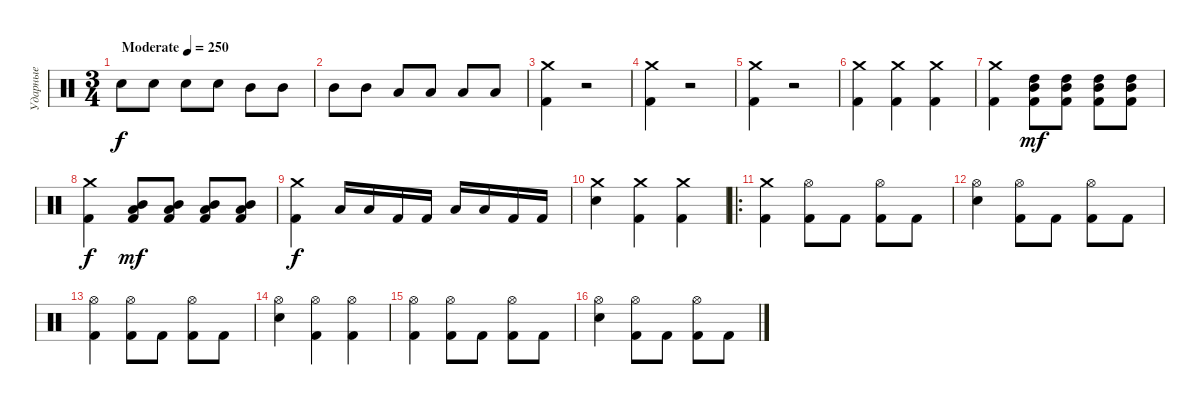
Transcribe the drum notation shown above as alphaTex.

\track ("Ударные" "Ударные") {instrument percussion}
\staff {score}
\articulation defaults
\ts (3 4)
\tempo (250 "Moderate")
\clef neutral
\ks c "Electric Snare (hit)".8{dy f} "Electric Snare (hit)".8 "Electric Snare (hit)".8 "Electric Snare (hit)".8 "Mid Tom (hit)".8 "Mid Tom (hit)".8
|
"Mid Tom (hit)".8 "Mid Tom (hit)".8 "Low Tom (hit)".8 "Low Tom (hit)".8 "Low Tom (hit)".8 "Low Tom (hit)".8 |
("Crash medium (hit)" "Kick (hit) 2").4 r.2 |
("Crash medium (hit)" "Kick (hit) 2").4 r.2 |
("Crash medium (hit)" "Kick (hit) 2").4 r.2 |
("Crash medium (hit)" "Kick (hit) 2").4 ("Crash medium (hit)" "Kick (hit) 2").4 ("Crash medium (hit)" "Kick (hit) 2").4 |
("Crash medium (hit)" "Kick (hit) 2").4 ("High Tom (hit)" "Mid Tom (hit)" "Kick (hit) 2").8{dy mf} ("High Tom (hit)" "Mid Tom (hit)" "Kick (hit) 2").8 ("High Tom (hit)" "Mid Tom (hit)" "Kick (hit) 2").8 ("High Tom (hit)" "Mid Tom (hit)" "Kick (hit) 2").8 |
("Crash medium (hit)" "Kick (hit) 2").4{dy f} ("Mid Tom (hit)" "Low Tom (hit)" "Kick (hit) 2").8{dy mf} ("Mid Tom (hit)" "Low Tom (hit)" "Kick (hit) 2").8 ("Mid Tom (hit)" "Low Tom (hit)" "Kick (hit) 2").8 ("Mid Tom (hit)" "Low Tom (hit)" "Kick (hit) 2").8 |
("Crash medium (hit)" "Kick (hit) 2").4{dy f} "Low Tom (hit)".16 "Low Tom (hit)".16 "Kick (hit) 2".16 "Kick (hit) 2".16 "Low Tom (hit)".16 "Low Tom (hit)".16 "Kick (hit) 2".16 "Kick (hit) 2".16 |
("Crash medium (hit)" "Electric Snare (hit)").4 ("Crash medium (hit)" "Kick (hit) 2").4 ("Crash medium (hit)" "Kick (hit) 2").4 |
\ro
("Crash medium (hit)" "Kick (hit) 2").4 ("Hi-Hat (open)" "Kick (hit) 2").8 "Kick (hit) 2".8 ("Hi-Hat (open)" "Kick (hit) 2").8 "Kick (hit) 2".8 |
("Hi-Hat (open)" "Electric Snare (hit)").4 ("Hi-Hat (open)" "Kick (hit) 2").8 "Kick (hit) 2".8 ("Hi-Hat (open)" "Kick (hit) 2").8 "Kick (hit) 2".8 |
("Hi-Hat (open)" "Kick (hit) 2").4 ("Hi-Hat (open)" "Kick (hit) 2").8 "Kick (hit) 2".8 ("Hi-Hat (open)" "Kick (hit) 2").8 "Kick (hit) 2".8 |
("Hi-Hat (open)" "Electric Snare (hit)").4 ("Hi-Hat (open)" "Kick (hit) 2").4 ("Hi-Hat (open)" "Kick (hit) 2").4 |
("Hi-Hat (open)" "Kick (hit) 2").4 ("Hi-Hat (open)" "Kick (hit) 2").8 "Kick (hit) 2".8 ("Hi-Hat (open)" "Kick (hit) 2").8 "Kick (hit) 2".8 |
("Hi-Hat (open)" "Electric Snare (hit)").4 ("Hi-Hat (open)" "Kick (hit) 2").8 "Kick (hit) 2".8 ("Hi-Hat (open)" "Kick (hit) 2").8 "Kick (hit) 2".8
